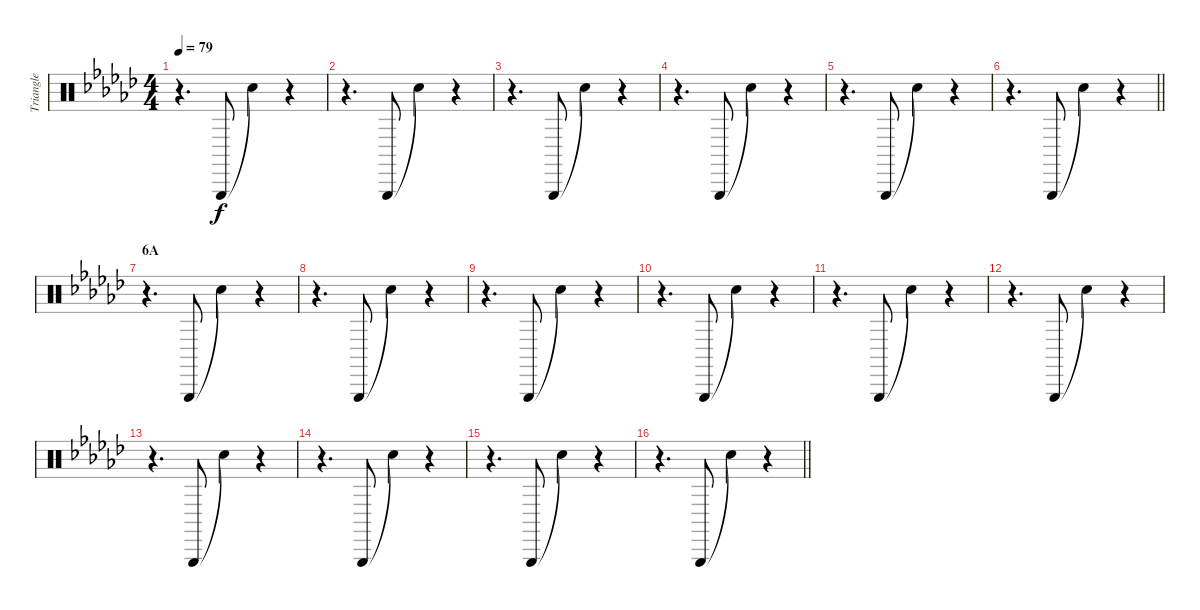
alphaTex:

\track ("Triangle" "Triangle") {instrument percussion}
\staff {score}
\articulation defaults
\ts (4 4)
\tempo 79
\clef neutral
\ks gb
r.4{d dy f} "Triangle (hit)".8 "Snare (hit)"{t}.4 r.4 |
r.4{d} "Triangle (hit)".8 "Snare (hit)"{t}.4 r.4 |
r.4{d} "Triangle (hit)".8 "Snare (hit)"{t}.4 r.4 |
r.4{d} "Triangle (hit)".8 "Snare (hit)"{t}.4 r.4 |
r.4{d} "Triangle (hit)".8 "Snare (hit)"{t}.4 r.4 |
\barLineRight lightlight
r.4{d} "Triangle (hit)".8 "Snare (hit)"{t}.4 r.4 |
\section ("" "6A")
r.4{d} "Triangle (hit)".8 "Snare (hit)"{t}.4 r.4 |
r.4{d} "Triangle (hit)".8 "Snare (hit)"{t}.4 r.4 |
r.4{d} "Triangle (hit)".8 "Snare (hit)"{t}.4 r.4 |
r.4{d} "Triangle (hit)".8 "Snare (hit)"{t}.4 r.4 |
r.4{d} "Triangle (hit)".8 "Snare (hit)"{t}.4 r.4 |
r.4{d} "Triangle (hit)".8 "Snare (hit)"{t}.4 r.4 |
r.4{d} "Triangle (hit)".8 "Snare (hit)"{t}.4 r.4 |
r.4{d} "Triangle (hit)".8 "Snare (hit)"{t}.4 r.4 |
r.4{d} "Triangle (hit)".8 "Snare (hit)"{t}.4 r.4 |
\barLineRight lightlight
r.4{d} "Triangle (hit)".8 "Snare (hit)"{t}.4 r.4
